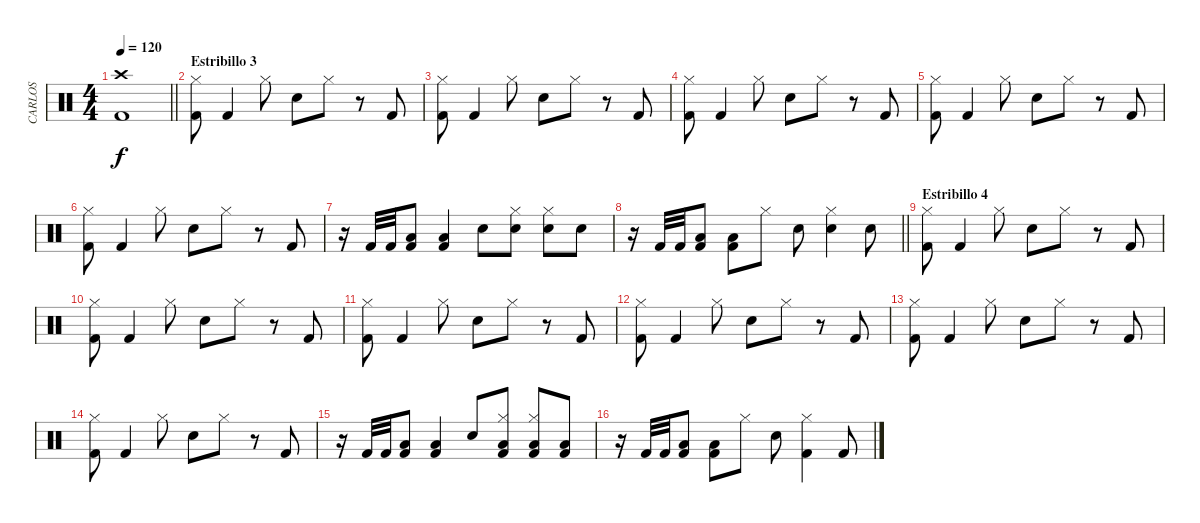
\track ("CARLOS" "CARLOS") {instrument percussion}
\staff {score}
\articulation defaults
\ts (4 4)
\tempo 120
\clef neutral
\barLineRight lightlight
\ks c
("Kick (hit) 2" "Crash high (hit)").1{dy f} |
\section ("" "Estribillo 3")
("Hi-Hat (closed)" "Kick (hit) 2").8 "Kick (hit) 2".4 "Hi-Hat (closed)".8 "Electric Snare (hit)".8 "Hi-Hat (closed)".8 r.8 "Kick (hit) 2".8 |
("Hi-Hat (closed)" "Kick (hit) 2").8 "Kick (hit) 2".4 "Hi-Hat (closed)".8 "Electric Snare (hit)".8 "Hi-Hat (closed)".8 r.8 "Kick (hit) 2".8 |
("Hi-Hat (closed)" "Kick (hit) 2").8 "Kick (hit) 2".4 "Hi-Hat (closed)".8 "Electric Snare (hit)".8 "Hi-Hat (closed)".8 r.8 "Kick (hit) 2".8 |
("Hi-Hat (closed)" "Kick (hit) 2").8 "Kick (hit) 2".4 "Hi-Hat (closed)".8 "Electric Snare (hit)".8 "Hi-Hat (closed)".8 r.8 "Kick (hit) 2".8 |
("Hi-Hat (closed)" "Kick (hit) 2").8 "Kick (hit) 2".4 "Hi-Hat (closed)".8 "Electric Snare (hit)".8 "Hi-Hat (closed)".8 r.8 "Kick (hit) 2".8 |
r.16 "Kick (hit) 2".32 "Kick (hit) 2".32 ("Low Tom (hit)" "Kick (hit) 2").8 ("Low Tom (hit)" "Kick (hit) 2").4 "Electric Snare (hit)".8 ("Hi-Hat (closed)" "Electric Snare (hit)").8 ("Hi-Hat (closed)" "Electric Snare (hit)").8 "Electric Snare (hit)".8 |
\barLineRight lightlight
r.16 "Kick (hit) 2".32 "Kick (hit) 2".32 ("Low Tom (hit)" "Kick (hit) 2").8 ("Kick (hit) 2" "Low Tom (hit)").8 "Hi-Hat (closed)".8 "Electric Snare (hit)".8 ("Hi-Hat (closed)" "Electric Snare (hit)").4 "Electric Snare (hit)".8 |
\section ("" "Estribillo 4")
("Hi-Hat (closed)" "Kick (hit) 2").8 "Kick (hit) 2".4 "Hi-Hat (closed)".8 "Electric Snare (hit)".8 "Hi-Hat (closed)".8 r.8 "Kick (hit) 2".8 |
("Hi-Hat (closed)" "Kick (hit) 2").8 "Kick (hit) 2".4 "Hi-Hat (closed)".8 "Electric Snare (hit)".8 "Hi-Hat (closed)".8 r.8 "Kick (hit) 2".8 |
("Hi-Hat (closed)" "Kick (hit) 2").8 "Kick (hit) 2".4 "Hi-Hat (closed)".8 "Electric Snare (hit)".8 "Hi-Hat (closed)".8 r.8 "Kick (hit) 2".8 |
("Hi-Hat (closed)" "Kick (hit) 2").8 "Kick (hit) 2".4 "Hi-Hat (closed)".8 "Electric Snare (hit)".8 "Hi-Hat (closed)".8 r.8 "Kick (hit) 2".8 |
("Hi-Hat (closed)" "Kick (hit) 2").8 "Kick (hit) 2".4 "Hi-Hat (closed)".8 "Electric Snare (hit)".8 "Hi-Hat (closed)".8 r.8 "Kick (hit) 2".8 |
("Hi-Hat (closed)" "Kick (hit) 2").8 "Kick (hit) 2".4 "Hi-Hat (closed)".8 "Electric Snare (hit)".8 "Hi-Hat (closed)".8 r.8 "Kick (hit) 2".8 |
r.16 "Kick (hit) 2".32 "Kick (hit) 2".32 ("Low Tom (hit)" "Kick (hit) 2").8 ("Low Tom (hit)" "Kick (hit) 2").4 "Electric Snare (hit)".8 ("Hi-Hat (closed)" "Low Tom (hit)" "Kick (hit) 2").8 ("Hi-Hat (closed)" "Low Tom (hit)" "Kick (hit) 2").8 ("Low Tom (hit)" "Kick (hit) 2").8 |
r.16 "Kick (hit) 2".32 "Kick (hit) 2".32 ("Low Tom (hit)" "Kick (hit) 2").8 ("Kick (hit) 2" "Low Tom (hit)").8 "Hi-Hat (closed)".8 "Electric Snare (hit)".8 ("Hi-Hat (closed)" "Kick (hit) 2").4 "Kick (hit) 2".8
